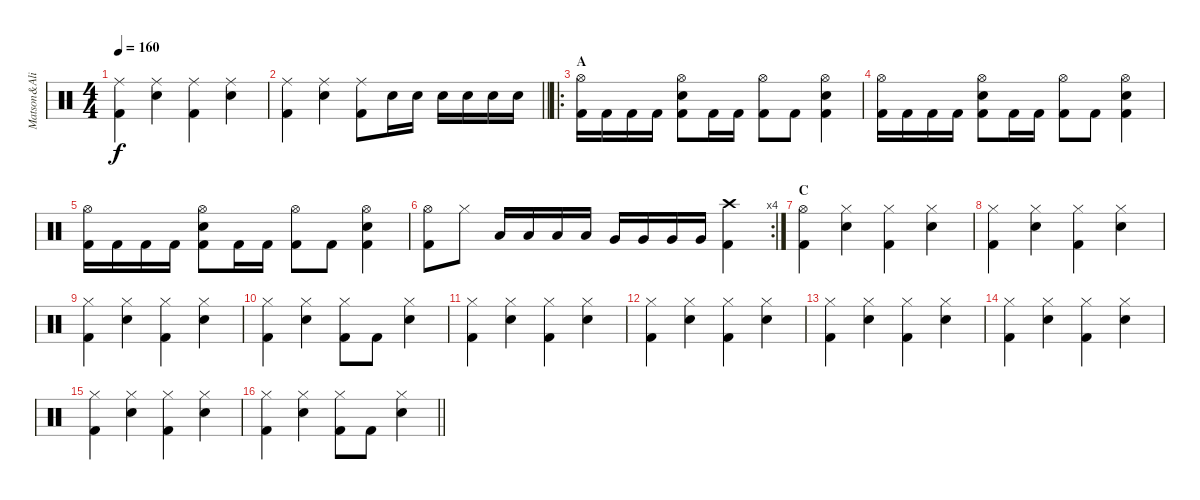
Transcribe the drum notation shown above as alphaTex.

\track ("Matson&Ali" "Matson&Ali") {instrument percussion}
\staff {score}
\articulation defaults
\ts (4 4)
\tempo 160
\clef neutral
\ks c
("Ride (middle)" "Kick (hit) 2").4{dy f} ("Ride (middle)" "Snare (hit) 2").4 ("Ride (middle)" "Kick (hit) 2").4 ("Ride (middle)" "Snare (hit) 2").4 |
\barLineRight lightlight
("Ride (middle)" "Kick (hit) 2").4 ("Ride (middle)" "Snare (hit) 2").4 ("Ride (middle)" "Kick (hit) 2").8 "Snare (hit) 2".16 "Snare (hit) 2".16 "Snare (hit) 2".16 "Snare (hit) 2".16 "Snare (hit) 2".16 "Snare (hit) 2".16 |
\ro
\section ("" "A")
("Hi-Hat (open)" "Kick (hit) 2").16 "Kick (hit) 2".16 "Kick (hit) 2".16 "Kick (hit) 2".16 ("Hi-Hat (open)" "Snare (hit) 2" "Kick (hit) 2").8 "Kick (hit) 2".16 "Kick (hit) 2".16 ("Hi-Hat (open)" "Kick (hit) 2").8 "Kick (hit) 2".8 ("Hi-Hat (open)" "Snare (hit) 2" "Kick (hit) 2").4 |
("Hi-Hat (open)" "Kick (hit) 2").16 "Kick (hit) 2".16 "Kick (hit) 2".16 "Kick (hit) 2".16 ("Hi-Hat (open)" "Snare (hit) 2" "Kick (hit) 2").8 "Kick (hit) 2".16 "Kick (hit) 2".16 ("Hi-Hat (open)" "Kick (hit) 2").8 "Kick (hit) 2".8 ("Hi-Hat (open)" "Snare (hit) 2" "Kick (hit) 2").4 |
("Hi-Hat (open)" "Kick (hit) 2").16 "Kick (hit) 2".16 "Kick (hit) 2".16 "Kick (hit) 2".16 ("Hi-Hat (open)" "Snare (hit) 2" "Kick (hit) 2").8 "Kick (hit) 2".16 "Kick (hit) 2".16 ("Hi-Hat (open)" "Kick (hit) 2").8 "Kick (hit) 2".8 ("Hi-Hat (open)" "Snare (hit) 2" "Kick (hit) 2").4 |
\rc 4
("Hi-Hat (open)" "Kick (hit) 2").8 "Hi-Hat (closed)".8 "Low Tom (hit)".16 "Low Tom (hit)".16 "Low Tom (hit)".16 "Low Tom (hit)".16 "Very Low Tom (hit)".16 "Very Low Tom (hit)".16 "Very Low Tom (hit)".16 "Very Low Tom (hit)".16 ("Crash high (hit)" "Kick (hit) 2").4 |
\section ("" "C")
("Hi-Hat (open)" "Kick (hit) 2").4 ("Hi-Hat (closed)" "Snare (hit) 2").4 ("Hi-Hat (closed)" "Kick (hit) 2").4 ("Hi-Hat (closed)" "Snare (hit) 2").4 |
("Hi-Hat (closed)" "Kick (hit) 2").4 ("Hi-Hat (closed)" "Snare (hit) 2").4 ("Hi-Hat (closed)" "Kick (hit) 2").4 ("Hi-Hat (closed)" "Snare (hit) 2").4 |
("Hi-Hat (closed)" "Kick (hit) 2").4 ("Hi-Hat (closed)" "Snare (hit) 2").4 ("Hi-Hat (closed)" "Kick (hit) 2").4 ("Hi-Hat (closed)" "Snare (hit) 2").4 |
("Hi-Hat (closed)" "Kick (hit) 2").4 ("Hi-Hat (closed)" "Snare (hit) 2").4 ("Hi-Hat (closed)" "Kick (hit) 2").8 "Kick (hit) 2".8 ("Hi-Hat (closed)" "Snare (hit) 2").4 |
("Hi-Hat (closed)" "Kick (hit) 2").4 ("Hi-Hat (closed)" "Snare (hit) 2").4 ("Hi-Hat (closed)" "Kick (hit) 2").4 ("Hi-Hat (closed)" "Snare (hit) 2").4 |
("Hi-Hat (closed)" "Kick (hit) 2").4 ("Hi-Hat (closed)" "Snare (hit) 2").4 ("Hi-Hat (closed)" "Kick (hit) 2").4 ("Hi-Hat (closed)" "Snare (hit) 2").4 |
("Hi-Hat (closed)" "Kick (hit) 2").4 ("Hi-Hat (closed)" "Snare (hit) 2").4 ("Hi-Hat (closed)" "Kick (hit) 2").4 ("Hi-Hat (closed)" "Snare (hit) 2").4 |
("Hi-Hat (closed)" "Kick (hit) 2").4 ("Hi-Hat (closed)" "Snare (hit) 2").4 ("Hi-Hat (closed)" "Kick (hit) 2").4 ("Hi-Hat (closed)" "Snare (hit) 2").4 |
("Hi-Hat (closed)" "Kick (hit) 2").4 ("Hi-Hat (closed)" "Snare (hit) 2").4 ("Hi-Hat (closed)" "Kick (hit) 2").4 ("Hi-Hat (closed)" "Snare (hit) 2").4 |
\barLineRight lightlight
("Hi-Hat (closed)" "Kick (hit) 2").4 ("Hi-Hat (closed)" "Snare (hit) 2").4 ("Hi-Hat (closed)" "Kick (hit) 2").8 "Kick (hit) 2".8 ("Hi-Hat (closed)" "Snare (hit) 2").4
